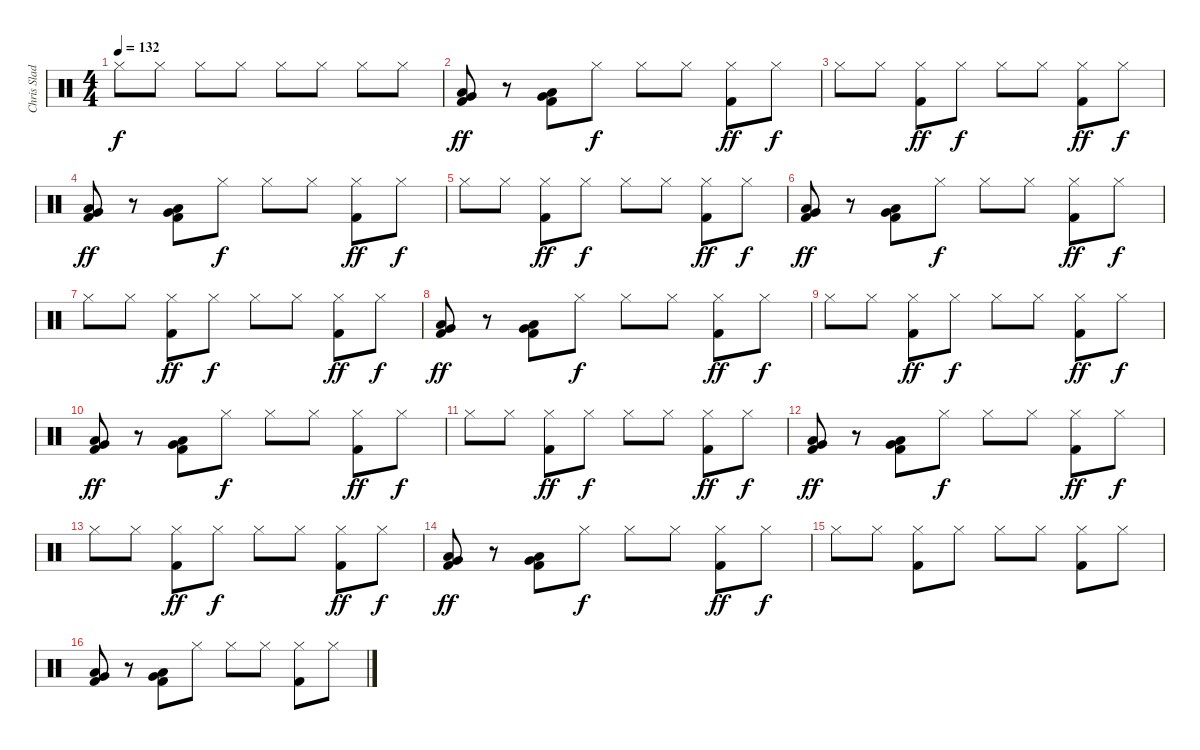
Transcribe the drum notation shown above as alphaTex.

\track ("Chris Slade" "Chris Slad") {instrument percussion}
\staff {score}
\articulation defaults
\ts (4 4)
\tempo 132
\clef neutral
\ks c "Hi-Hat (closed)".8{dy f} "Hi-Hat (closed)".8 "Hi-Hat (closed)".8 "Hi-Hat (closed)".8 "Hi-Hat (closed)".8 "Hi-Hat (closed)".8 "Hi-Hat (closed)".8 "Hi-Hat (closed)".8
|
("Kick (hit) 2" "Very Low Tom (hit)" "Low Floor Tom (hit)").8{dy ff} r.8 ("Kick (hit) 2" "Very Low Tom (hit)" "Low Floor Tom (hit)").8 "Hi-Hat (closed)".8{dy f} "Hi-Hat (closed)".8 "Hi-Hat (closed)".8 ("Kick (hit) 2" "Hi-Hat (closed)").8{dy ff} "Hi-Hat (closed)".8{dy f} |
"Hi-Hat (closed)".8 "Hi-Hat (closed)".8 ("Kick (hit) 2" "Hi-Hat (closed)").8{dy ff} "Hi-Hat (closed)".8{dy f} "Hi-Hat (closed)".8 "Hi-Hat (closed)".8 ("Kick (hit) 2" "Hi-Hat (closed)").8{dy ff} "Hi-Hat (closed)".8{dy f} |
("Kick (hit) 2" "Very Low Tom (hit)" "Low Floor Tom (hit)").8{dy ff} r.8 ("Kick (hit) 2" "Very Low Tom (hit)" "Low Floor Tom (hit)").8 "Hi-Hat (closed)".8{dy f} "Hi-Hat (closed)".8 "Hi-Hat (closed)".8 ("Kick (hit) 2" "Hi-Hat (closed)").8{dy ff} "Hi-Hat (closed)".8{dy f} |
"Hi-Hat (closed)".8 "Hi-Hat (closed)".8 ("Kick (hit) 2" "Hi-Hat (closed)").8{dy ff} "Hi-Hat (closed)".8{dy f} "Hi-Hat (closed)".8 "Hi-Hat (closed)".8 ("Kick (hit) 2" "Hi-Hat (closed)").8{dy ff} "Hi-Hat (closed)".8{dy f} |
("Kick (hit) 2" "Very Low Tom (hit)" "Low Floor Tom (hit)").8{dy ff} r.8 ("Kick (hit) 2" "Very Low Tom (hit)" "Low Floor Tom (hit)").8 "Hi-Hat (closed)".8{dy f} "Hi-Hat (closed)".8 "Hi-Hat (closed)".8 ("Kick (hit) 2" "Hi-Hat (closed)").8{dy ff} "Hi-Hat (closed)".8{dy f} |
"Hi-Hat (closed)".8 "Hi-Hat (closed)".8 ("Kick (hit) 2" "Hi-Hat (closed)").8{dy ff} "Hi-Hat (closed)".8{dy f} "Hi-Hat (closed)".8 "Hi-Hat (closed)".8 ("Kick (hit) 2" "Hi-Hat (closed)").8{dy ff} "Hi-Hat (closed)".8{dy f} |
("Kick (hit) 2" "Very Low Tom (hit)" "Low Floor Tom (hit)").8{dy ff} r.8 ("Kick (hit) 2" "Very Low Tom (hit)" "Low Floor Tom (hit)").8 "Hi-Hat (closed)".8{dy f} "Hi-Hat (closed)".8 "Hi-Hat (closed)".8 ("Kick (hit) 2" "Hi-Hat (closed)").8{dy ff} "Hi-Hat (closed)".8{dy f} |
"Hi-Hat (closed)".8 "Hi-Hat (closed)".8 ("Kick (hit) 2" "Hi-Hat (closed)").8{dy ff} "Hi-Hat (closed)".8{dy f} "Hi-Hat (closed)".8 "Hi-Hat (closed)".8 ("Kick (hit) 2" "Hi-Hat (closed)").8{dy ff} "Hi-Hat (closed)".8{dy f} |
("Kick (hit) 2" "Very Low Tom (hit)" "Low Floor Tom (hit)").8{dy ff} r.8 ("Kick (hit) 2" "Very Low Tom (hit)" "Low Floor Tom (hit)").8 "Hi-Hat (closed)".8{dy f} "Hi-Hat (closed)".8 "Hi-Hat (closed)".8 ("Kick (hit) 2" "Hi-Hat (closed)").8{dy ff} "Hi-Hat (closed)".8{dy f} |
"Hi-Hat (closed)".8 "Hi-Hat (closed)".8 ("Kick (hit) 2" "Hi-Hat (closed)").8{dy ff} "Hi-Hat (closed)".8{dy f} "Hi-Hat (closed)".8 "Hi-Hat (closed)".8 ("Kick (hit) 2" "Hi-Hat (closed)").8{dy ff} "Hi-Hat (closed)".8{dy f} |
("Kick (hit) 2" "Very Low Tom (hit)" "Low Floor Tom (hit)").8{dy ff} r.8 ("Kick (hit) 2" "Very Low Tom (hit)" "Low Floor Tom (hit)").8 "Hi-Hat (closed)".8{dy f} "Hi-Hat (closed)".8 "Hi-Hat (closed)".8 ("Kick (hit) 2" "Hi-Hat (closed)").8{dy ff} "Hi-Hat (closed)".8{dy f} |
"Hi-Hat (closed)".8 "Hi-Hat (closed)".8 ("Kick (hit) 2" "Hi-Hat (closed)").8{dy ff} "Hi-Hat (closed)".8{dy f} "Hi-Hat (closed)".8 "Hi-Hat (closed)".8 ("Kick (hit) 2" "Hi-Hat (closed)").8{dy ff} "Hi-Hat (closed)".8{dy f} |
("Kick (hit) 2" "Very Low Tom (hit)" "Low Floor Tom (hit)").8{dy ff} r.8 ("Kick (hit) 2" "Very Low Tom (hit)" "Low Floor Tom (hit)").8 "Hi-Hat (closed)".8{dy f} "Hi-Hat (closed)".8 "Hi-Hat (closed)".8 ("Kick (hit) 2" "Hi-Hat (closed)").8{dy ff} "Hi-Hat (closed)".8{dy f} |
"Hi-Hat (closed)".8 "Hi-Hat (closed)".8 ("Kick (hit) 2" "Hi-Hat (closed)").8 "Hi-Hat (closed)".8 "Hi-Hat (closed)".8 "Hi-Hat (closed)".8 ("Kick (hit) 2" "Hi-Hat (closed)").8 "Hi-Hat (closed)".8 |
("Kick (hit) 2" "Very Low Tom (hit)" "Low Floor Tom (hit)").8 r.8 ("Kick (hit) 2" "Very Low Tom (hit)" "Low Floor Tom (hit)").8 "Hi-Hat (closed)".8 "Hi-Hat (closed)".8 "Hi-Hat (closed)".8 ("Kick (hit) 2" "Hi-Hat (closed)").8 "Hi-Hat (closed)".8
